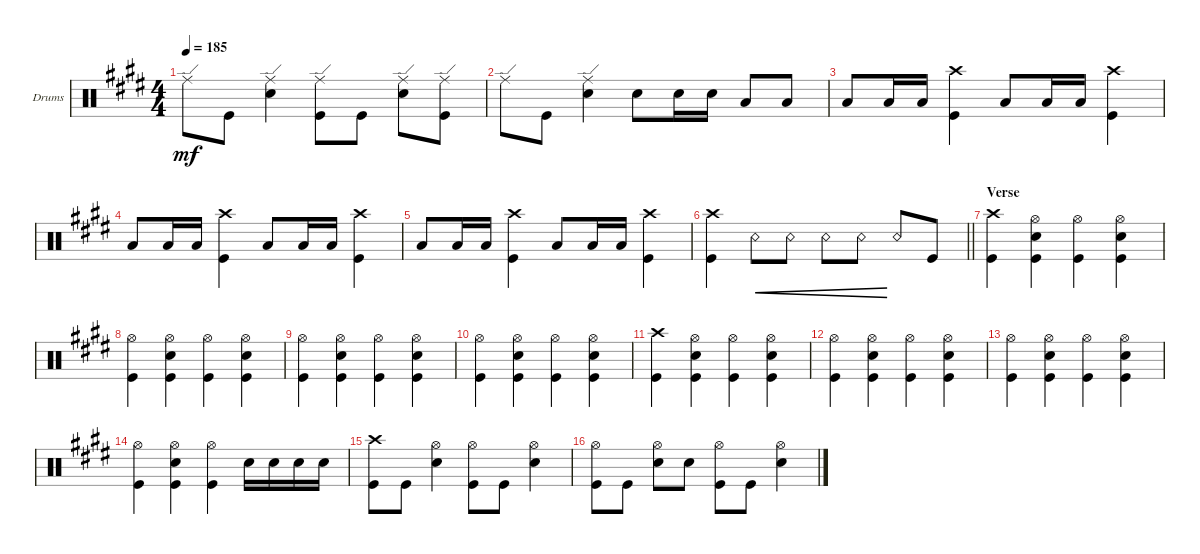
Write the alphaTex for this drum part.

\defaultSystemsLayout 4
\bracketExtendMode groupsimilarinstruments
\firstSystemTrackNameOrientation horizontal
\otherSystemsTrackNameOrientation horizontal
\track ("Drums" "Drums") {instrument percussion}
\staff {score}
\articulation defaults
\ts (4 4)
\tempo 185
\clef neutral
\scale
0.333333
\ks e "Ride (edge)".8{dy mf} "Kick (hit)".8
("Snare (hit) 2" "Ride (edge)").4 ("Kick (hit)" "Ride (edge)").8 "Kick (hit)".8 ("Snare (hit) 2" "Ride (edge)").8 ("Kick (hit)" "Ride (edge)").8 |
\scale
0.333333 "Ride (edge)".8 "Kick (hit)".8 ("Snare (hit) 2" "Ride (edge)").4 "Snare (hit) 2".8 "Snare (hit) 2".16 "Snare (hit) 2".16 "Low Tom (hit)".8 "Low Tom (hit)".8 |
\scale
0.333333 "Low Tom (hit)".8 "Low Tom (hit)".16 "Low Tom (hit)".16 ("Kick (hit)" "Crash high (hit)").4 "Low Tom (hit)".8 "Low Tom (hit)".16 "Low Tom (hit)".16 ("Kick (hit)" "Crash high (hit)").4 |
\scale
0.333333 "Low Tom (hit)".8 "Low Tom (hit)".16 "Low Tom (hit)".16 ("Kick (hit)" "Crash high (hit)").4 "Low Tom (hit)".8 "Low Tom (hit)".16 "Low Tom (hit)".16 ("Kick (hit)" "Crash high (hit)").4 |
\scale
0.333333 "Low Tom (hit)".8 "Low Tom (hit)".16 "Low Tom (hit)".16 ("Kick (hit)" "Crash high (hit)").4 "Low Tom (hit)".8 "Low Tom (hit)".16 "Low Tom (hit)".16 ("Kick (hit)" "Crash high (hit)").4 |
\scale
0.333333
\barLineRight lightlight
("Kick (hit)" "Crash high (hit)").4 "Snare (rim shot)".8{cre} "Snare (rim shot)".8{cre} "Snare (rim shot)".8{cre} "Snare (rim shot)".8{cre} "Snare (rim shot)".8 "Kick (hit)".8 |
\section ("" "Verse")
\scale
0.333333 ("Kick (hit)" "Crash high (hit)").4 ("Hi-Hat (open)" "Snare (hit) 2" "Kick (hit)").4 ("Hi-Hat (open)" "Kick (hit)").4 ("Hi-Hat (open)" "Snare (hit) 2" "Kick (hit)").4 |
\scale
0.333333 ("Hi-Hat (open)" "Kick (hit)").4 ("Hi-Hat (open)" "Snare (hit) 2" "Kick (hit)").4 ("Hi-Hat (open)" "Kick (hit)").4 ("Hi-Hat (open)" "Snare (hit) 2" "Kick (hit)").4 |
\scale
0.333333 ("Hi-Hat (open)" "Kick (hit)").4 ("Hi-Hat (open)" "Snare (hit) 2" "Kick (hit)").4 ("Hi-Hat (open)" "Kick (hit)").4 ("Hi-Hat (open)" "Snare (hit) 2" "Kick (hit)").4 |
("Hi-Hat (open)" "Kick (hit)").4 ("Hi-Hat (open)" "Snare (hit) 2" "Kick (hit)").4 ("Hi-Hat (open)" "Kick (hit)").4 ("Hi-Hat (open)" "Snare (hit) 2" "Kick (hit)").4 |
("Kick (hit)" "Crash high (hit)").4 ("Hi-Hat (open)" "Snare (hit) 2" "Kick (hit)").4 ("Hi-Hat (open)" "Kick (hit)").4 ("Hi-Hat (open)" "Snare (hit) 2" "Kick (hit)").4 |
("Hi-Hat (open)" "Kick (hit)").4 ("Hi-Hat (open)" "Snare (hit) 2" "Kick (hit)").4 ("Hi-Hat (open)" "Kick (hit)").4 ("Hi-Hat (open)" "Snare (hit) 2" "Kick (hit)").4 |
("Hi-Hat (open)" "Kick (hit)").4 ("Hi-Hat (open)" "Snare (hit) 2" "Kick (hit)").4 ("Hi-Hat (open)" "Kick (hit)").4 ("Hi-Hat (open)" "Snare (hit) 2" "Kick (hit)").4 |
("Hi-Hat (open)" "Kick (hit)").4 ("Hi-Hat (open)" "Snare (hit) 2" "Kick (hit)").4 ("Hi-Hat (open)" "Kick (hit)").4 "Snare (hit) 2".16 "Snare (hit) 2".16 "Snare (hit) 2".16 "Snare (hit) 2".16 |
("Kick (hit)" "Crash high (hit)").8 "Kick (hit)".8 ("Snare (hit) 2" "Hi-Hat (open)").4 ("Kick (hit)" "Hi-Hat (open)").8 "Kick (hit)".8 ("Snare (hit) 2" "Hi-Hat (open)").4 |
("Kick (hit)" "Hi-Hat (open)").8 "Kick (hit)".8 ("Snare (hit) 2" "Hi-Hat (open)").8 "Snare (hit) 2".8 ("Kick (hit)" "Hi-Hat (open)").8 "Kick (hit)".8 ("Snare (hit) 2" "Hi-Hat (open)").4
